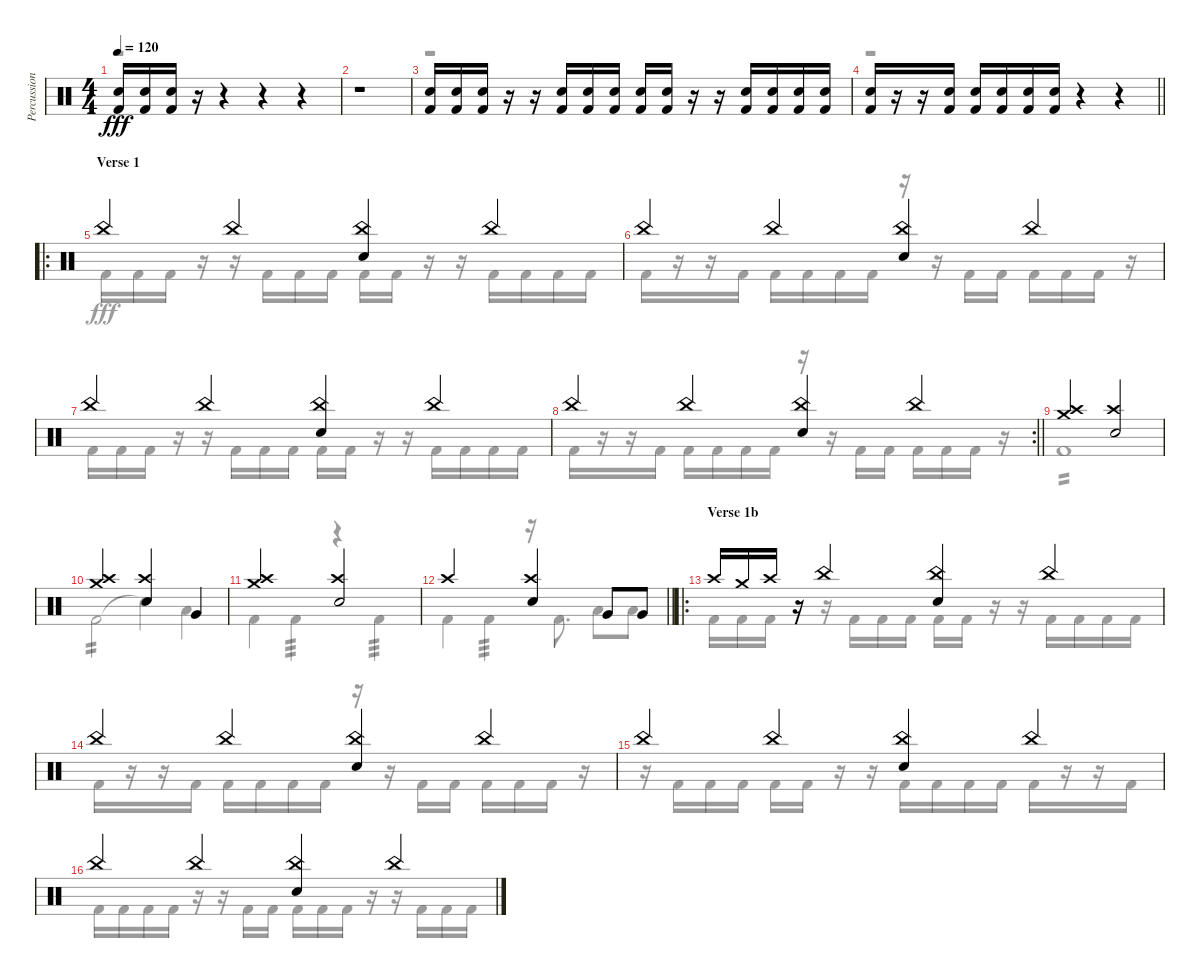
\track ("Percussion" "Percussion") {instrument percussion}
\staff {score}
\articulation defaults
\voice
\ts (4 4)
\tempo 120
\clef neutral
\ks c
("Snare (hit) 2" "Kick (hit) 2").16{dy fff} ("Snare (hit) 2" "Kick (hit) 2").16 ("Snare (hit) 2" "Kick (hit) 2").16 r.16 r.4 r.4 r.4 |
r.1 |
("Snare (hit) 2" "Kick (hit) 2").16 ("Snare (hit) 2" "Kick (hit) 2").16 ("Snare (hit) 2" "Kick (hit) 2").16 r.16 r.16 ("Snare (hit) 2" "Kick (hit) 2").16 ("Snare (hit) 2" "Kick (hit) 2").16 ("Snare (hit) 2" "Kick (hit) 2").16 ("Snare (hit) 2" "Kick (hit) 2").16 ("Snare (hit) 2" "Kick (hit) 2").16 r.16 r.16 ("Snare (hit) 2" "Kick (hit) 2").16 ("Snare (hit) 2" "Kick (hit) 2").16 ("Snare (hit) 2" "Kick (hit) 2").16 ("Snare (hit) 2" "Kick (hit) 2").16 |
\barLineRight lightlight
("Snare (hit) 2" "Kick (hit) 2").16 r.16 r.16 ("Snare (hit) 2" "Kick (hit) 2").16 ("Snare (hit) 2" "Kick (hit) 2").16 ("Snare (hit) 2" "Kick (hit) 2").16 ("Snare (hit) 2" "Kick (hit) 2").16 ("Snare (hit) 2" "Kick (hit) 2").16 r.4 r.4 |
\ro
\section ("" "Verse 1")
"China (hit)".4 "China (hit)".4 ("China (hit)" "Electric Snare (hit)").4 "China (hit)".4 |
"China (hit)".4 "China (hit)".4 ("China (hit)" "Electric Snare (hit)").4 "China (hit)".4 |
"China (hit)".4 "China (hit)".4 ("China (hit)" "Electric Snare (hit)").4 "China (hit)".4 |
\rc 2
\barLineRight lightlight "China (hit)".4 "China (hit)".4
("China (hit)" "Electric Snare (hit)").4 "China (hit)".4 |
("Crash high (hit)" "Crash medium (hit)").2 ("Crash high (hit)" "Snare (hit) 2").2 |
("Crash high (hit)" "Crash medium (hit)").2 ("Crash high (hit)" "Snare (hit) 2").4 "Very Low Tom (hit)".4 |
("Crash high (hit)" "Crash medium (hit)").2 ("Crash high (hit)" "Snare (hit) 2").2 |
\barLineRight lightlight "Crash high (hit)".2
("Crash high (hit)" "Snare (hit) 2").4 "Very Low Tom (hit)".8 "Very Low Tom (hit)".8 |
\ro
\section ("" "Verse 1b")
"Crash high (hit)".16 "Crash medium (hit)".16 "Crash high (hit)".16 r.16 "China (hit)".4 ("China (hit)" "Electric Snare (hit)").4 "China (hit)".4 |
"China (hit)".4 "China (hit)".4 ("China (hit)" "Electric Snare (hit)").4 "China (hit)".4 |
"China (hit)".4 "China (hit)".4 ("China (hit)" "Electric Snare (hit)").4 "China (hit)".4 |
"China (hit)".4 "China (hit)".4 ("China (hit)" "Electric Snare (hit)").4 "China (hit)".4
\voice
\clef neutral
\ottava regular
\simile none
\ks c
r.1{dy fff} |
r.1 |
r.1 |
\barLineRight lightlight
r.1 |
"Kick (hit) 2".16 "Kick (hit) 2".16 "Kick (hit) 2".16 r.16 r.16 "Kick (hit) 2".16 "Kick (hit) 2".16 "Kick (hit) 2".16 "Kick (hit) 2".16 "Kick (hit) 2".16 r.16 r.16 "Kick (hit) 2".16 "Kick (hit) 2".16 "Kick (hit) 2".16 "Kick (hit) 2".16 |
"Kick (hit) 2".16 r.16 r.16 "Kick (hit) 2".16 "Kick (hit) 2".16 "Kick (hit) 2".16 "Kick (hit) 2".16 "Kick (hit) 2".16 r.16 r.16 "Kick (hit) 2".16 "Kick (hit) 2".16 "Kick (hit) 2".16 "Kick (hit) 2".16 "Kick (hit) 2".16 r.16 |
"Kick (hit) 2".16 "Kick (hit) 2".16 "Kick (hit) 2".16 r.16 r.16 "Kick (hit) 2".16 "Kick (hit) 2".16 "Kick (hit) 2".16 "Kick (hit) 2".16 "Kick (hit) 2".16 r.16 r.16 "Kick (hit) 2".16 "Kick (hit) 2".16 "Kick (hit) 2".16 "Kick (hit) 2".16 |
\barLineRight lightlight "Kick (hit) 2".16
r.16 r.16 "Kick (hit) 2".16 "Kick (hit) 2".16 "Kick (hit) 2".16 "Kick (hit) 2".16 "Kick (hit) 2".16 r.16 r.16 "Kick (hit) 2".16 "Kick (hit) 2".16 "Kick (hit) 2".16 "Kick (hit) 2".16 "Kick (hit) 2".16 r.16 |
"Kick (hit) 2".1{tp 2} |
"Kick (hit) 2".2{tp 2} "Snare (hit)"{t}.4 "Low Floor Tom (hit)".4 |
"Kick (hit) 2".4 "Kick (hit) 2".4{tp 3} r.4 "Kick (hit) 2".4{tp 3} |
\barLineRight lightlight "Kick (hit) 2".4 "Kick (hit) 2".4{tp 3}
r.16 "Kick (hit) 2".8{d} "Low Floor Tom (hit)".8 "Low Floor Tom (hit)".8 |
"Kick (hit) 2".16 "Kick (hit) 2".16 "Kick (hit) 2".16 r.16 r.16 "Kick (hit) 2".16 "Kick (hit) 2".16 "Kick (hit) 2".16 "Kick (hit) 2".16 "Kick (hit) 2".16 r.16 r.16 "Kick (hit) 2".16 "Kick (hit) 2".16 "Kick (hit) 2".16 "Kick (hit) 2".16 |
"Kick (hit) 2".16 r.16 r.16 "Kick (hit) 2".16 "Kick (hit) 2".16 "Kick (hit) 2".16 "Kick (hit) 2".16 "Kick (hit) 2".16 r.16 r.16 "Kick (hit) 2".16 "Kick (hit) 2".16 "Kick (hit) 2".16 "Kick (hit) 2".16 "Kick (hit) 2".16 r.16 |
r.16 "Kick (hit) 2".16 "Kick (hit) 2".16 "Kick (hit) 2".16 "Kick (hit) 2".16 "Kick (hit) 2".16 r.16 r.16 "Kick (hit) 2".16 "Kick (hit) 2".16 "Kick (hit) 2".16 "Kick (hit) 2".16 "Kick (hit) 2".16 r.16 r.16 "Kick (hit) 2".16 |
"Kick (hit) 2".16 "Kick (hit) 2".16 "Kick (hit) 2".16 "Kick (hit) 2".16 r.16 r.16 "Kick (hit) 2".16 "Kick (hit) 2".16 "Kick (hit) 2".16 "Kick (hit) 2".16 "Kick (hit) 2".16 r.16 r.16 "Kick (hit) 2".16 "Kick (hit) 2".16 "Kick (hit) 2".16
